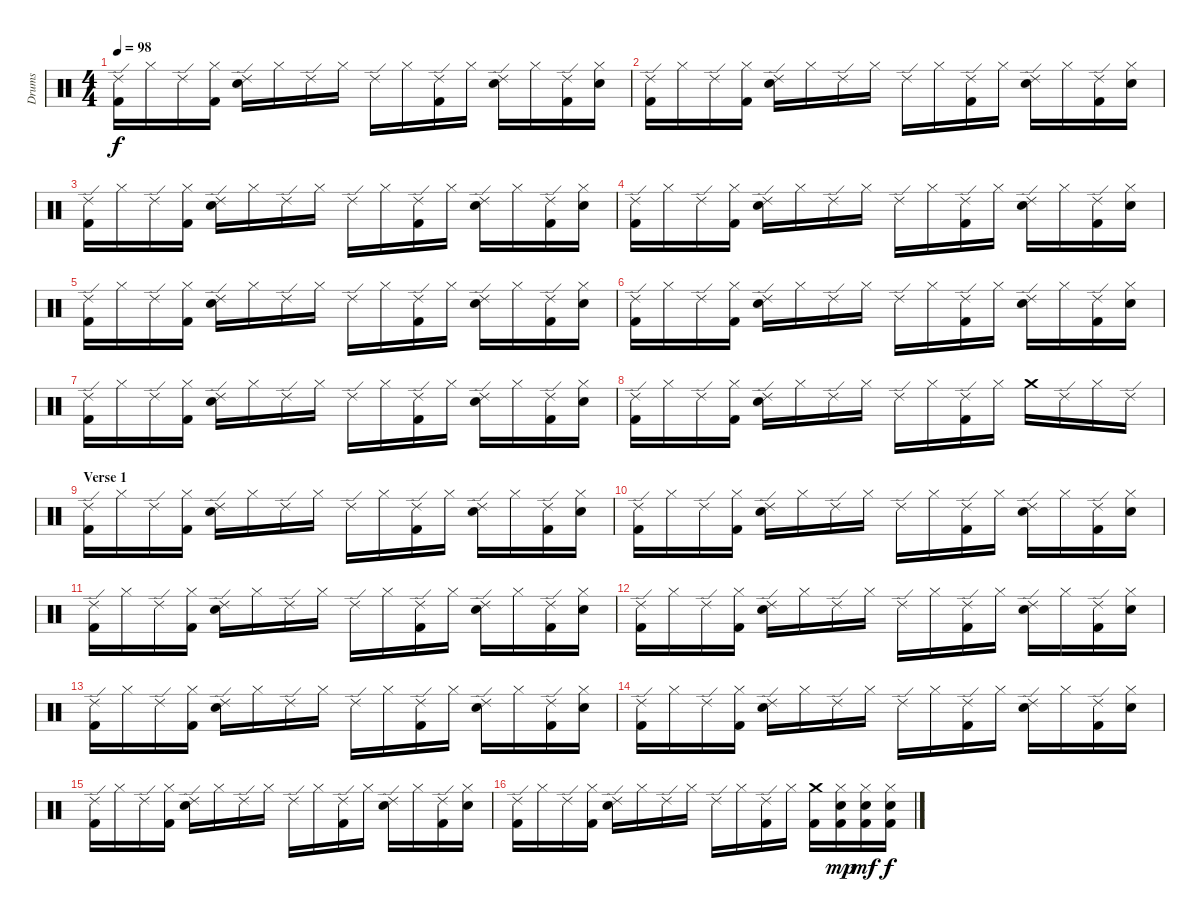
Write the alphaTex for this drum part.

\track ("Drums" "Drums") {instrument percussion}
\staff {score}
\articulation defaults
\ts (4 4)
\tempo 98
\clef neutral
\ks c
("Ride (edge) 2" "Kick (hit) 2").16{dy f} "Hi-Hat (closed)".16 "Ride (edge) 2".16 ("Hi-Hat (closed)" "Kick (hit) 2").16 ("Ride (edge) 2" "Electric Snare (hit)").16 "Hi-Hat (closed)".16 "Ride (edge) 2".16 "Hi-Hat (closed)".16 "Ride (edge) 2".16 "Hi-Hat (closed)".16 ("Ride (edge) 2" "Kick (hit) 2").16 "Hi-Hat (closed)".16 ("Ride (edge) 2" "Electric Snare (hit)").16 "Hi-Hat (closed)".16 ("Ride (edge) 2" "Kick (hit) 2").16 ("Hi-Hat (closed)" "Electric Snare (hit)").16 |
("Ride (edge) 2" "Kick (hit) 2").16 "Hi-Hat (closed)".16 "Ride (edge) 2".16 ("Hi-Hat (closed)" "Kick (hit) 2").16 ("Ride (edge) 2" "Electric Snare (hit)").16 "Hi-Hat (closed)".16 "Ride (edge) 2".16 "Hi-Hat (closed)".16 "Ride (edge) 2".16 "Hi-Hat (closed)".16 ("Ride (edge) 2" "Kick (hit) 2").16 "Hi-Hat (closed)".16 ("Ride (edge) 2" "Electric Snare (hit)").16 "Hi-Hat (closed)".16 ("Ride (edge) 2" "Kick (hit) 2").16 ("Hi-Hat (closed)" "Electric Snare (hit)").16 |
("Ride (edge) 2" "Kick (hit) 2").16 "Hi-Hat (closed)".16 "Ride (edge) 2".16 ("Hi-Hat (closed)" "Kick (hit) 2").16 ("Ride (edge) 2" "Electric Snare (hit)").16 "Hi-Hat (closed)".16 "Ride (edge) 2".16 "Hi-Hat (closed)".16 "Ride (edge) 2".16 "Hi-Hat (closed)".16 ("Ride (edge) 2" "Kick (hit) 2").16 "Hi-Hat (closed)".16 ("Ride (edge) 2" "Electric Snare (hit)").16 "Hi-Hat (closed)".16 ("Ride (edge) 2" "Kick (hit) 2").16 ("Hi-Hat (closed)" "Electric Snare (hit)").16 |
("Ride (edge) 2" "Kick (hit) 2").16 "Hi-Hat (closed)".16 "Ride (edge) 2".16 ("Hi-Hat (closed)" "Kick (hit) 2").16 ("Ride (edge) 2" "Electric Snare (hit)").16 "Hi-Hat (closed)".16 "Ride (edge) 2".16 "Hi-Hat (closed)".16 "Ride (edge) 2".16 "Hi-Hat (closed)".16 ("Ride (edge) 2" "Kick (hit) 2").16 "Hi-Hat (closed)".16 ("Ride (edge) 2" "Electric Snare (hit)").16 "Hi-Hat (closed)".16 ("Ride (edge) 2" "Kick (hit) 2").16 ("Hi-Hat (closed)" "Electric Snare (hit)").16 |
("Ride (edge) 2" "Kick (hit) 2").16 "Hi-Hat (closed)".16 "Ride (edge) 2".16 ("Hi-Hat (closed)" "Kick (hit) 2").16 ("Ride (edge) 2" "Electric Snare (hit)").16 "Hi-Hat (closed)".16 "Ride (edge) 2".16 "Hi-Hat (closed)".16 "Ride (edge) 2".16 "Hi-Hat (closed)".16 ("Ride (edge) 2" "Kick (hit) 2").16 "Hi-Hat (closed)".16 ("Ride (edge) 2" "Electric Snare (hit)").16 "Hi-Hat (closed)".16 ("Ride (edge) 2" "Kick (hit) 2").16 ("Hi-Hat (closed)" "Electric Snare (hit)").16 |
("Ride (edge) 2" "Kick (hit) 2").16 "Hi-Hat (closed)".16 "Ride (edge) 2".16 ("Hi-Hat (closed)" "Kick (hit) 2").16 ("Ride (edge) 2" "Electric Snare (hit)").16 "Hi-Hat (closed)".16 "Ride (edge) 2".16 "Hi-Hat (closed)".16 "Ride (edge) 2".16 "Hi-Hat (closed)".16 ("Ride (edge) 2" "Kick (hit) 2").16 "Hi-Hat (closed)".16 ("Ride (edge) 2" "Electric Snare (hit)").16 "Hi-Hat (closed)".16 ("Ride (edge) 2" "Kick (hit) 2").16 ("Hi-Hat (closed)" "Electric Snare (hit)").16 |
("Ride (edge) 2" "Kick (hit) 2").16 "Hi-Hat (closed)".16 "Ride (edge) 2".16 ("Hi-Hat (closed)" "Kick (hit) 2").16 ("Ride (edge) 2" "Electric Snare (hit)").16 "Hi-Hat (closed)".16 "Ride (edge) 2".16 "Hi-Hat (closed)".16 "Ride (edge) 2".16 "Hi-Hat (closed)".16 ("Ride (edge) 2" "Kick (hit) 2").16 "Hi-Hat (closed)".16 ("Ride (edge) 2" "Electric Snare (hit)").16 "Hi-Hat (closed)".16 ("Ride (edge) 2" "Kick (hit) 2").16 ("Hi-Hat (closed)" "Electric Snare (hit)").16 |
("Ride (edge) 2" "Kick (hit) 2").16 "Hi-Hat (closed)".16 "Ride (edge) 2".16 ("Hi-Hat (closed)" "Kick (hit) 2").16 ("Ride (edge) 2" "Electric Snare (hit)").16 "Hi-Hat (closed)".16 "Ride (edge) 2".16 "Hi-Hat (closed)".16 "Ride (edge) 2".16 "Hi-Hat (closed)".16 ("Ride (edge) 2" "Kick (hit) 2").16 "Hi-Hat (closed)".16 "Crash medium (hit)".16 "Ride (edge) 2".16 "Hi-Hat (closed)".16 "Ride (edge) 2".16 |
\section ("" "Verse 1")
("Ride (edge) 2" "Kick (hit) 2").16 "Hi-Hat (closed)".16 "Ride (edge) 2".16 ("Hi-Hat (closed)" "Kick (hit) 2").16 ("Ride (edge) 2" "Electric Snare (hit)").16 "Hi-Hat (closed)".16 "Ride (edge) 2".16 "Hi-Hat (closed)".16 "Ride (edge) 2".16 "Hi-Hat (closed)".16 ("Ride (edge) 2" "Kick (hit) 2").16 "Hi-Hat (closed)".16 ("Ride (edge) 2" "Electric Snare (hit)").16 "Hi-Hat (closed)".16 ("Ride (edge) 2" "Kick (hit) 2").16 ("Hi-Hat (closed)" "Electric Snare (hit)").16 |
("Ride (edge) 2" "Kick (hit) 2").16 "Hi-Hat (closed)".16 "Ride (edge) 2".16 ("Hi-Hat (closed)" "Kick (hit) 2").16 ("Ride (edge) 2" "Electric Snare (hit)").16 "Hi-Hat (closed)".16 "Ride (edge) 2".16 "Hi-Hat (closed)".16 "Ride (edge) 2".16 "Hi-Hat (closed)".16 ("Ride (edge) 2" "Kick (hit) 2").16 "Hi-Hat (closed)".16 ("Ride (edge) 2" "Electric Snare (hit)").16 "Hi-Hat (closed)".16 ("Ride (edge) 2" "Kick (hit) 2").16 ("Hi-Hat (closed)" "Electric Snare (hit)").16 |
("Ride (edge) 2" "Kick (hit) 2").16 "Hi-Hat (closed)".16 "Ride (edge) 2".16 ("Hi-Hat (closed)" "Kick (hit) 2").16 ("Ride (edge) 2" "Electric Snare (hit)").16 "Hi-Hat (closed)".16 "Ride (edge) 2".16 "Hi-Hat (closed)".16 "Ride (edge) 2".16 "Hi-Hat (closed)".16 ("Ride (edge) 2" "Kick (hit) 2").16 "Hi-Hat (closed)".16 ("Ride (edge) 2" "Electric Snare (hit)").16 "Hi-Hat (closed)".16 ("Ride (edge) 2" "Kick (hit) 2").16 ("Hi-Hat (closed)" "Electric Snare (hit)").16 |
("Ride (edge) 2" "Kick (hit) 2").16 "Hi-Hat (closed)".16 "Ride (edge) 2".16 ("Hi-Hat (closed)" "Kick (hit) 2").16 ("Ride (edge) 2" "Electric Snare (hit)").16 "Hi-Hat (closed)".16 "Ride (edge) 2".16 "Hi-Hat (closed)".16 "Ride (edge) 2".16 "Hi-Hat (closed)".16 ("Ride (edge) 2" "Kick (hit) 2").16 "Hi-Hat (closed)".16 ("Ride (edge) 2" "Electric Snare (hit)").16 "Hi-Hat (closed)".16 ("Ride (edge) 2" "Kick (hit) 2").16 ("Hi-Hat (closed)" "Electric Snare (hit)").16 |
("Ride (edge) 2" "Kick (hit) 2").16 "Hi-Hat (closed)".16 "Ride (edge) 2".16 ("Hi-Hat (closed)" "Kick (hit) 2").16 ("Ride (edge) 2" "Electric Snare (hit)").16 "Hi-Hat (closed)".16 "Ride (edge) 2".16 "Hi-Hat (closed)".16 "Ride (edge) 2".16 "Hi-Hat (closed)".16 ("Ride (edge) 2" "Kick (hit) 2").16 "Hi-Hat (closed)".16 ("Ride (edge) 2" "Electric Snare (hit)").16 "Hi-Hat (closed)".16 ("Ride (edge) 2" "Kick (hit) 2").16 ("Hi-Hat (closed)" "Electric Snare (hit)").16 |
("Ride (edge) 2" "Kick (hit) 2").16 "Hi-Hat (closed)".16 "Ride (edge) 2".16 ("Hi-Hat (closed)" "Kick (hit) 2").16 ("Ride (edge) 2" "Electric Snare (hit)").16 "Hi-Hat (closed)".16 "Ride (edge) 2".16 "Hi-Hat (closed)".16 "Ride (edge) 2".16 "Hi-Hat (closed)".16 ("Ride (edge) 2" "Kick (hit) 2").16 "Hi-Hat (closed)".16 ("Ride (edge) 2" "Electric Snare (hit)").16 "Hi-Hat (closed)".16 ("Ride (edge) 2" "Kick (hit) 2").16 ("Hi-Hat (closed)" "Electric Snare (hit)").16 |
("Ride (edge) 2" "Kick (hit) 2").16 "Hi-Hat (closed)".16 "Ride (edge) 2".16 ("Hi-Hat (closed)" "Kick (hit) 2").16 ("Ride (edge) 2" "Electric Snare (hit)").16 "Hi-Hat (closed)".16 "Ride (edge) 2".16 "Hi-Hat (closed)".16 "Ride (edge) 2".16 "Hi-Hat (closed)".16 ("Ride (edge) 2" "Kick (hit) 2").16 "Hi-Hat (closed)".16 ("Ride (edge) 2" "Electric Snare (hit)").16 "Hi-Hat (closed)".16 ("Ride (edge) 2" "Kick (hit) 2").16 ("Hi-Hat (closed)" "Electric Snare (hit)").16 |
("Ride (edge) 2" "Kick (hit) 2").16 "Hi-Hat (closed)".16 "Ride (edge) 2".16 ("Hi-Hat (closed)" "Kick (hit) 2").16 ("Ride (edge) 2" "Electric Snare (hit)").16 "Hi-Hat (closed)".16 "Ride (edge) 2".16 "Hi-Hat (closed)".16 "Ride (edge) 2".16 "Hi-Hat (closed)".16 ("Ride (edge) 2" "Kick (hit) 2").16 "Hi-Hat (closed)".16 ("Crash medium (hit)" "Kick (hit) 2").16 ("Hi-Hat (closed)" "Electric Snare (hit)" "Kick (hit) 2").16{dy mp} ("Hi-Hat (closed)" "Electric Snare (hit)" "Kick (hit) 2").16{dy mf} ("Hi-Hat (closed)" "Electric Snare (hit)" "Kick (hit) 2").16{dy f}
